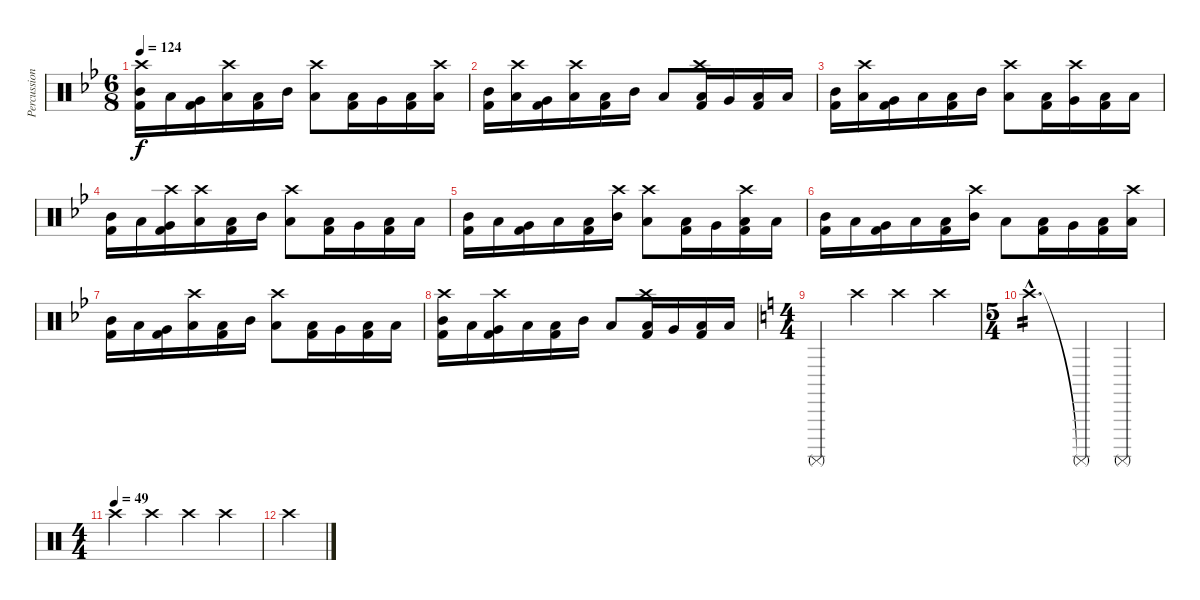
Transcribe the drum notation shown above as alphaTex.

\track ("Percussion" "Percussion") {instrument percussion}
\staff {score}
\articulation defaults
\ts (6 8)
\tempo 124
\clef neutral
\ks bb
("Mid Tom (hit)" "Kick (hit) 2" "Crash high (hit)").16{dy f} "Low Tom (hit)".16 ("Very Low Tom (hit)" "Kick (hit) 2").16 ("Low Floor Tom (hit)" "Crash high (hit)").16 ("Low Tom (hit)" "Kick (hit) 2").16 "Mid Tom (hit)".16 ("Low Tom (hit)" "Crash high (hit)").8 ("Low Tom (hit)" "Kick (hit) 2").16 "Very Low Tom (hit)".16 ("Low Tom (hit)" "Kick (hit) 2").16 ("Low Floor Tom (hit)" "Crash high (hit)").16 |
("Mid Tom (hit)" "Kick (hit) 2").16 ("Low Tom (hit)" "Crash high (hit)").16 ("Very Low Tom (hit)" "Kick (hit) 2").16 ("Low Floor Tom (hit)" "Crash high (hit)").16 ("Low Tom (hit)" "Kick (hit) 2").16 "Mid Tom (hit)".16 "Low Tom (hit)".8 ("Low Tom (hit)" "Kick (hit) 2" "Crash high (hit)").16 "Very Low Tom (hit)".16 ("Low Tom (hit)" "Kick (hit) 2").16 "Low Floor Tom (hit)".16 |
("Mid Tom (hit)" "Kick (hit) 2").16 ("Low Tom (hit)" "Crash high (hit)").16 ("Very Low Tom (hit)" "Kick (hit) 2").16 "Low Floor Tom (hit)".16 ("Low Tom (hit)" "Kick (hit) 2").16 "Mid Tom (hit)".16 ("Low Tom (hit)" "Crash high (hit)").8 ("Low Tom (hit)" "Kick (hit) 2").16 ("Very Low Tom (hit)" "Crash high (hit)").16 ("Low Tom (hit)" "Kick (hit) 2").16 "Low Floor Tom (hit)".16 |
("Mid Tom (hit)" "Kick (hit) 2").16 "Low Tom (hit)".16 ("Very Low Tom (hit)" "Kick (hit) 2" "Crash high (hit)").16 ("Low Floor Tom (hit)" "Crash high (hit)").16 ("Low Tom (hit)" "Kick (hit) 2").16 "Mid Tom (hit)".16 ("Low Tom (hit)" "Crash high (hit)").8 ("Low Tom (hit)" "Kick (hit) 2").16 "Very Low Tom (hit)".16 ("Low Tom (hit)" "Kick (hit) 2").16 "Low Floor Tom (hit)".16 |
("Mid Tom (hit)" "Kick (hit) 2").16 "Low Tom (hit)".16 ("Very Low Tom (hit)" "Kick (hit) 2").16 "Low Floor Tom (hit)".16 ("Low Tom (hit)" "Kick (hit) 2").16 ("Mid Tom (hit)" "Crash high (hit)").16 ("Low Tom (hit)" "Crash high (hit)").8 ("Low Tom (hit)" "Kick (hit) 2").16 "Very Low Tom (hit)".16 ("Low Tom (hit)" "Kick (hit) 2" "Crash high (hit)").16 "Low Floor Tom (hit)".16 |
("Mid Tom (hit)" "Kick (hit) 2").16 "Low Tom (hit)".16 ("Very Low Tom (hit)" "Kick (hit) 2").16 "Low Floor Tom (hit)".16 ("Low Tom (hit)" "Kick (hit) 2").16 ("Mid Tom (hit)" "Crash high (hit)").16 "Low Tom (hit)".8 ("Low Tom (hit)" "Kick (hit) 2").16 "Very Low Tom (hit)".16 ("Low Tom (hit)" "Kick (hit) 2").16 ("Low Floor Tom (hit)" "Crash high (hit)").16 |
("Mid Tom (hit)" "Kick (hit) 2").16 "Low Tom (hit)".16 ("Very Low Tom (hit)" "Kick (hit) 2").16 ("Low Floor Tom (hit)" "Crash high (hit)").16 ("Low Tom (hit)" "Kick (hit) 2").16 "Mid Tom (hit)".16 ("Low Tom (hit)" "Crash high (hit)").8 ("Low Tom (hit)" "Kick (hit) 2").16 "Very Low Tom (hit)".16 ("Low Tom (hit)" "Kick (hit) 2").16 "Low Floor Tom (hit)".16 |
("Mid Tom (hit)" "Kick (hit) 2" "Crash high (hit)").16 "Low Tom (hit)".16 ("Very Low Tom (hit)" "Kick (hit) 2" "Crash high (hit)").16 "Low Floor Tom (hit)".16 ("Low Tom (hit)" "Kick (hit) 2").16 "Mid Tom (hit)".16 "Low Tom (hit)".8 ("Low Tom (hit)" "Kick (hit) 2" "Crash high (hit)").16 "Very Low Tom (hit)".16 ("Low Tom (hit)" "Kick (hit) 2").16 "Low Floor Tom (hit)".16 |
\ts (4 4)
\ks c "Surdo (mute)".4 "Crash high (hit)".4 "Crash high (hit)".4 "Crash high (hit)".4
|
\ts (5 4)
"Crash high (hit)"{hac}.2{d tp 2} "Surdo (mute)"{t}.4 "Surdo (mute)".4 |
\ts (4 4)
\tempo (49)
"Crash high (hit)".4 "Crash high (hit)".4 "Crash high (hit)".4 "Crash high (hit)".4 |
"Crash high (hit)".4
